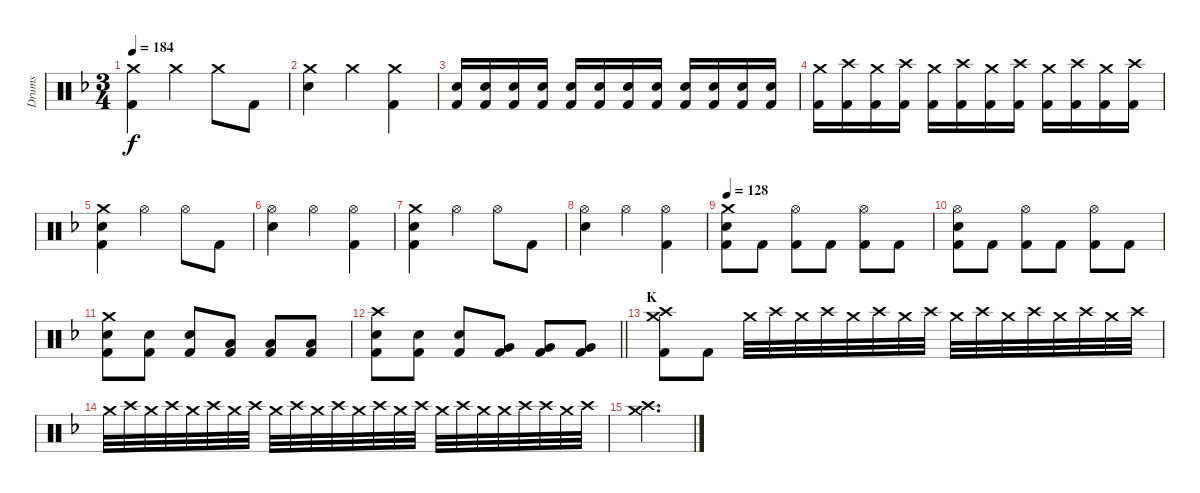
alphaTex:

\track ("Drums" "Drums") {instrument percussion}
\staff {score}
\articulation defaults
\ts (3 4)
\tempo 184
\clef neutral
\ks f
("Crash medium (hit)" "Kick (hit) 2").4{dy f} "Crash medium (hit)".4 "Crash medium (hit)".8 "Kick (hit) 2".8 |
("Crash medium (hit)" "Electric Snare (hit)").4 "Crash medium (hit)".4 ("Crash medium (hit)" "Kick (hit) 2").4 |
("Electric Snare (hit)" "Kick (hit) 2").16 ("Electric Snare (hit)" "Kick (hit) 2").16 ("Electric Snare (hit)" "Kick (hit) 2").16 ("Electric Snare (hit)" "Kick (hit) 2").16 ("Electric Snare (hit)" "Kick (hit) 2").16 ("Electric Snare (hit)" "Kick (hit) 2").16 ("Electric Snare (hit)" "Kick (hit) 2").16 ("Electric Snare (hit)" "Kick (hit) 2").16 ("Electric Snare (hit)" "Kick (hit) 2").16 ("Electric Snare (hit)" "Kick (hit) 2").16 ("Electric Snare (hit)" "Kick (hit) 2").16 ("Electric Snare (hit)" "Kick (hit) 2").16 |
("Crash medium (hit)" "Kick (hit) 2").16 ("Crash high (hit)" "Kick (hit) 2").16 ("Crash medium (hit)" "Kick (hit) 2").16 ("Crash high (hit)" "Kick (hit) 2").16 ("Crash medium (hit)" "Kick (hit) 2").16 ("Crash high (hit)" "Kick (hit) 2").16 ("Crash medium (hit)" "Kick (hit) 2").16 ("Crash high (hit)" "Kick (hit) 2").16 ("Crash medium (hit)" "Kick (hit) 2").16 ("Crash high (hit)" "Kick (hit) 2").16 ("Crash medium (hit)" "Kick (hit) 2").16 ("Crash high (hit)" "Kick (hit) 2").16 |
("Crash medium (hit)" "Electric Snare (hit)" "Kick (hit) 2").4 "Hi-Hat (open)".4 "Hi-Hat (open)".8 "Kick (hit) 2".8 |
("Hi-Hat (open)" "Electric Snare (hit)").4 "Hi-Hat (open)".4 ("Hi-Hat (open)" "Kick (hit) 2").4 |
("Crash medium (hit)" "Electric Snare (hit)" "Kick (hit) 2").4 "Hi-Hat (open)".4 "Hi-Hat (open)".8 "Kick (hit) 2".8 |
("Hi-Hat (open)" "Electric Snare (hit)").4 "Hi-Hat (open)".4 ("Hi-Hat (open)" "Kick (hit) 2").4 |
\tempo 128
("Crash medium (hit)" "Electric Snare (hit)" "Kick (hit) 2").8 "Kick (hit) 2".8 ("Hi-Hat (open)" "Kick (hit) 2").8 "Kick (hit) 2".8 ("Hi-Hat (open)" "Kick (hit) 2").8 "Kick (hit) 2".8 |
("Hi-Hat (open)" "Electric Snare (hit)" "Kick (hit) 2").8 "Kick (hit) 2".8 ("Hi-Hat (open)" "Kick (hit) 2").8 "Kick (hit) 2".8 ("Hi-Hat (open)" "Kick (hit) 2").8 "Kick (hit) 2".8 |
("Crash medium (hit)" "Electric Snare (hit)" "Kick (hit) 2").8 ("Electric Snare (hit)" "Kick (hit) 2").8 ("Electric Snare (hit)" "Kick (hit) 2").8 ("Low Tom (hit)" "Kick (hit) 2").8 ("Low Tom (hit)" "Kick (hit) 2").8 ("Low Tom (hit)" "Kick (hit) 2").8 |
\barLineRight lightlight
("Crash high (hit)" "Electric Snare (hit)" "Kick (hit) 2").8 ("Electric Snare (hit)" "Kick (hit) 2").8 ("Electric Snare (hit)" "Kick (hit) 2").8 ("Very Low Tom (hit)" "Kick (hit) 2").8 ("Very Low Tom (hit)" "Kick (hit) 2").8 ("Very Low Tom (hit)" "Kick (hit) 2").8 |
\section ("" "K")
("Crash medium (hit)" "Crash high (hit)" "Kick (hit) 2").8 "Kick (hit) 2".8 "Crash medium (hit)".32{volume 7} "Crash high (hit)".32 "Crash medium (hit)".32{volume 14} "Crash high (hit)".32 "Crash medium (hit)".32 "Crash high (hit)".32 "Crash medium (hit)".32 "Crash high (hit)".32 "Crash medium (hit)".32 "Crash high (hit)".32 "Crash medium (hit)".32 "Crash high (hit)".32 "Crash medium (hit)".32 "Crash high (hit)".32 "Crash medium (hit)".32 "Crash high (hit)".32 |
"Crash medium (hit)".32 "Crash high (hit)".32 "Crash medium (hit)".32 "Crash high (hit)".32 "Crash medium (hit)".32 "Crash high (hit)".32 "Crash medium (hit)".32 "Crash high (hit)".32 "Crash medium (hit)".32 "Crash high (hit)".32 "Crash medium (hit)".32 "Crash high (hit)".32 "Crash medium (hit)".32 "Crash high (hit)".32 "Crash medium (hit)".32 "Crash high (hit)".32 "Crash medium (hit)".32 "Crash high (hit)".32 "Crash medium (hit)".32 "Crash medium (hit)".32 "Crash high (hit)".32 "Crash high (hit)".32 "Crash medium (hit)".32 "Crash high (hit)".32 |
("Crash medium (hit)" "Crash high (hit)").2{d}
